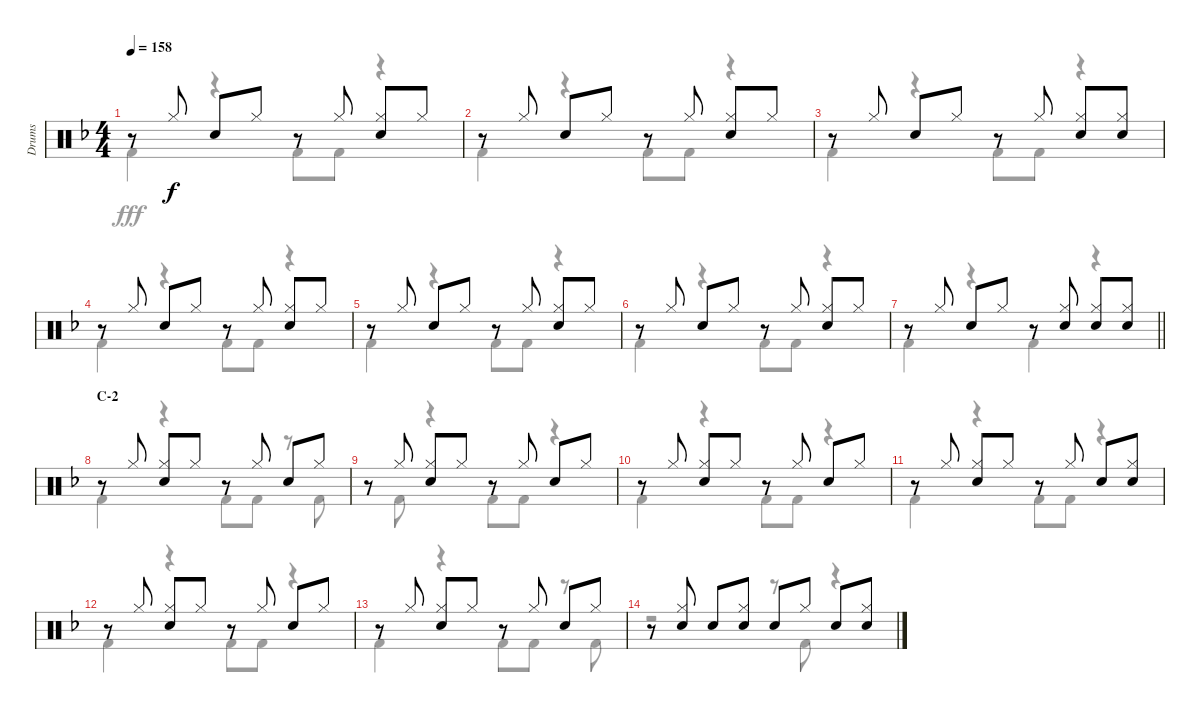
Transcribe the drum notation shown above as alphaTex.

\track ("Drums" "Drums") {instrument percussion}
\staff {score}
\articulation defaults
\voice
\ts (4 4)
\tempo 158
\clef neutral
\ks f
r.8{dy f} "Hi-Hat (closed)".8 "Snare (hit) 2".8 "Hi-Hat (closed)".8 r.8 "Hi-Hat (closed)".8 ("Hi-Hat (closed)" "Snare (hit) 2").8 "Hi-Hat (closed)".8 |
r.8 "Hi-Hat (closed)".8 "Snare (hit) 2".8 "Hi-Hat (closed)".8 r.8 "Hi-Hat (closed)".8 ("Hi-Hat (closed)" "Snare (hit) 2").8 "Hi-Hat (closed)".8 |
r.8 "Hi-Hat (closed)".8 "Snare (hit) 2".8 "Hi-Hat (closed)".8 r.8 "Hi-Hat (closed)".8 ("Hi-Hat (closed)" "Snare (hit) 2").8 ("Hi-Hat (closed)" "Snare (hit) 2").8 |
r.8 "Hi-Hat (closed)".8 "Snare (hit) 2".8 "Hi-Hat (closed)".8 r.8 "Hi-Hat (closed)".8 ("Hi-Hat (closed)" "Snare (hit) 2").8 "Hi-Hat (closed)".8 |
r.8 "Hi-Hat (closed)".8 "Snare (hit) 2".8 "Hi-Hat (closed)".8 r.8 "Hi-Hat (closed)".8 ("Hi-Hat (closed)" "Snare (hit) 2").8 "Hi-Hat (closed)".8 |
r.8 "Hi-Hat (closed)".8 "Snare (hit) 2".8 "Hi-Hat (closed)".8 r.8 "Hi-Hat (closed)".8 ("Hi-Hat (closed)" "Snare (hit) 2").8 "Hi-Hat (closed)".8 |
\barLineRight lightlight
r.8 "Hi-Hat (closed)".8 "Snare (hit) 2".8 "Hi-Hat (closed)".8 r.8 ("Hi-Hat (closed)" "Snare (hit) 2").8 ("Hi-Hat (closed)" "Snare (hit) 2").8 ("Hi-Hat (closed)" "Snare (hit) 2").8 |
\section ("" "C-2")
r.8 "Hi-Hat (closed)".8 ("Hi-Hat (closed)" "Snare (hit) 2").8 "Hi-Hat (closed)".8 r.8 "Hi-Hat (closed)".8 "Snare (hit) 2".8 "Hi-Hat (closed)".8 |
r.8 "Hi-Hat (closed)".8 ("Hi-Hat (closed)" "Snare (hit) 2").8 "Hi-Hat (closed)".8 r.8 "Hi-Hat (closed)".8 "Snare (hit) 2".8 "Hi-Hat (closed)".8 |
r.8 "Hi-Hat (closed)".8 ("Hi-Hat (closed)" "Snare (hit) 2").8 "Hi-Hat (closed)".8 r.8 "Hi-Hat (closed)".8 "Snare (hit) 2".8 "Hi-Hat (closed)".8 |
r.8 "Hi-Hat (closed)".8 ("Hi-Hat (closed)" "Snare (hit) 2").8 "Hi-Hat (closed)".8 r.8 "Hi-Hat (closed)".8 "Snare (hit) 2".8 ("Hi-Hat (closed)" "Snare (hit) 2").8 |
r.8 "Hi-Hat (closed)".8 ("Hi-Hat (closed)" "Snare (hit) 2").8 "Hi-Hat (closed)".8 r.8 "Hi-Hat (closed)".8 "Snare (hit) 2".8 "Hi-Hat (closed)".8 |
r.8 "Hi-Hat (closed)".8 ("Hi-Hat (closed)" "Snare (hit) 2").8 "Hi-Hat (closed)".8 r.8 "Hi-Hat (closed)".8 "Snare (hit) 2".8 "Hi-Hat (closed)".8 |
r.8 ("Hi-Hat (closed)" "Snare (hit) 2").8 "Snare (hit) 2".8 ("Hi-Hat (closed)" "Snare (hit) 2").8 "Snare (hit) 2".8 "Hi-Hat (closed)".8 "Snare (hit) 2".8 ("Hi-Hat (closed)" "Snare (hit) 2").8
\voice
\clef neutral
\ottava regular
\simile none
\ks f "Kick (hit) 2".4{dy fff}
r.4 "Kick (hit) 2".8 "Kick (hit) 2".8 r.4 |
"Kick (hit) 2".4 r.4 "Kick (hit) 2".8 "Kick (hit) 2".8 r.4 |
"Kick (hit) 2".4 r.4 "Kick (hit) 2".8 "Kick (hit) 2".8 r.4 |
"Kick (hit) 2".4 r.4 "Kick (hit) 2".8 "Kick (hit) 2".8 r.4 |
"Kick (hit) 2".4 r.4 "Kick (hit) 2".8 "Kick (hit) 2".8 r.4 |
"Kick (hit) 2".4 r.4 "Kick (hit) 2".8 "Kick (hit) 2".8 r.4 |
\barLineRight lightlight "Kick (hit) 2".4
r.4 "Kick (hit) 2".4 r.4 |
"Kick (hit) 2".4 r.4 "Kick (hit) 2".8 "Kick (hit) 2".8 r.8 "Kick (hit) 2".8 |
r.8 "Kick (hit) 2".8 r.4 "Kick (hit) 2".8 "Kick (hit) 2".8 r.4 |
"Kick (hit) 2".4 r.4 "Kick (hit) 2".8 "Kick (hit) 2".8 r.4 |
"Kick (hit) 2".4 r.4 "Kick (hit) 2".8 "Kick (hit) 2".8 r.4 |
"Kick (hit) 2".4 r.4 "Kick (hit) 2".8 "Kick (hit) 2".8 r.4 |
"Kick (hit) 2".4 r.4 "Kick (hit) 2".8 "Kick (hit) 2".8 r.8 "Kick (hit) 2".8 |
r.2 r.8 "Kick (hit) 2".8 r.4
